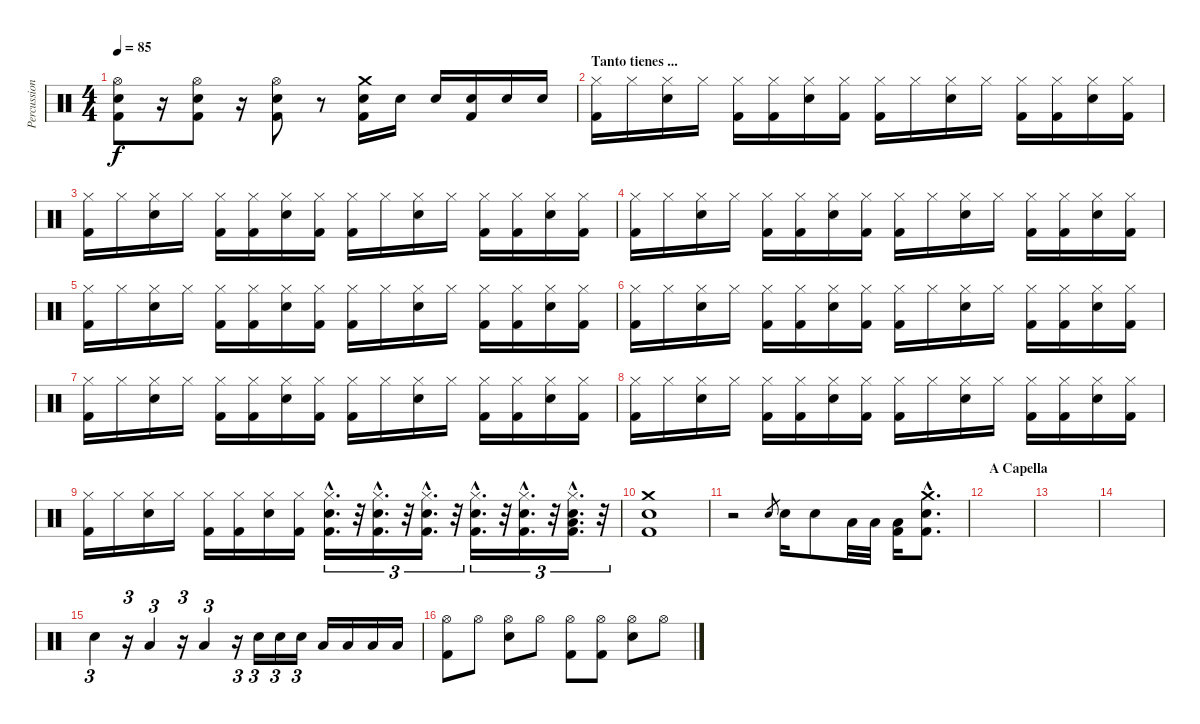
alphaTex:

\track ("Percussions" "Percussion") {instrument percussion}
\staff {score}
\articulation defaults
\ts (4 4)
\tempo 85
\clef neutral
\ks c
("Hi-Hat (open)" "Snare (hit) 2" "Kick (hit) 2").8{dy f} r.16 ("Hi-Hat (open)" "Snare (hit) 2" "Kick (hit) 2").8 r.16 ("Hi-Hat (open)" "Snare (hit) 2" "Kick (hit) 2").8 r.8 ("Crash medium (hit)" "Snare (hit) 2" "Kick (hit) 2").16 "Snare (hit) 2".16 "Snare (hit) 2".16 ("Snare (hit) 2" "Kick (hit) 2").16 "Snare (hit) 2".16 "Snare (hit) 2".16 |
\section ("" "Tanto tienes ...")
("Hi-Hat (closed)" "Kick (hit) 2").16 "Hi-Hat (closed)".16 ("Hi-Hat (closed)" "Snare (hit) 2").16 "Hi-Hat (closed)".16 ("Hi-Hat (closed)" "Kick (hit) 2").16 ("Hi-Hat (closed)" "Kick (hit) 2").16 ("Hi-Hat (closed)" "Snare (hit) 2").16 ("Hi-Hat (closed)" "Kick (hit) 2").16 ("Hi-Hat (closed)" "Kick (hit) 2").16 "Hi-Hat (closed)".16 ("Hi-Hat (closed)" "Snare (hit) 2").16 "Hi-Hat (closed)".16 ("Hi-Hat (closed)" "Kick (hit) 2").16 ("Hi-Hat (closed)" "Kick (hit) 2").16 ("Hi-Hat (closed)" "Snare (hit) 2").16 ("Hi-Hat (closed)" "Kick (hit) 2").16 |
("Hi-Hat (closed)" "Kick (hit) 2").16 "Hi-Hat (closed)".16 ("Hi-Hat (closed)" "Snare (hit) 2").16 "Hi-Hat (closed)".16 ("Hi-Hat (closed)" "Kick (hit) 2").16 ("Hi-Hat (closed)" "Kick (hit) 2").16 ("Hi-Hat (closed)" "Snare (hit) 2").16 ("Hi-Hat (closed)" "Kick (hit) 2").16 ("Hi-Hat (closed)" "Kick (hit) 2").16 "Hi-Hat (closed)".16 ("Hi-Hat (closed)" "Snare (hit) 2").16 "Hi-Hat (closed)".16 ("Hi-Hat (closed)" "Kick (hit) 2").16 ("Hi-Hat (closed)" "Kick (hit) 2").16 ("Hi-Hat (closed)" "Snare (hit) 2").16 ("Hi-Hat (closed)" "Kick (hit) 2").16 |
("Hi-Hat (closed)" "Kick (hit) 2").16 "Hi-Hat (closed)".16 ("Hi-Hat (closed)" "Snare (hit) 2").16 "Hi-Hat (closed)".16 ("Hi-Hat (closed)" "Kick (hit) 2").16 ("Hi-Hat (closed)" "Kick (hit) 2").16 ("Hi-Hat (closed)" "Snare (hit) 2").16 ("Hi-Hat (closed)" "Kick (hit) 2").16 ("Hi-Hat (closed)" "Kick (hit) 2").16 "Hi-Hat (closed)".16 ("Hi-Hat (closed)" "Snare (hit) 2").16 "Hi-Hat (closed)".16 ("Hi-Hat (closed)" "Kick (hit) 2").16 ("Hi-Hat (closed)" "Kick (hit) 2").16 ("Hi-Hat (closed)" "Snare (hit) 2").16 ("Hi-Hat (closed)" "Kick (hit) 2").16 |
("Hi-Hat (closed)" "Kick (hit) 2").16 "Hi-Hat (closed)".16 ("Hi-Hat (closed)" "Snare (hit) 2").16 "Hi-Hat (closed)".16 ("Hi-Hat (closed)" "Kick (hit) 2").16 ("Hi-Hat (closed)" "Kick (hit) 2").16 ("Hi-Hat (closed)" "Snare (hit) 2").16 ("Hi-Hat (closed)" "Kick (hit) 2").16 ("Hi-Hat (closed)" "Kick (hit) 2").16 "Hi-Hat (closed)".16 ("Hi-Hat (closed)" "Snare (hit) 2").16 "Hi-Hat (closed)".16 ("Hi-Hat (closed)" "Kick (hit) 2").16 ("Hi-Hat (closed)" "Kick (hit) 2").16 ("Hi-Hat (closed)" "Snare (hit) 2").16 ("Hi-Hat (closed)" "Kick (hit) 2").16 |
("Hi-Hat (closed)" "Kick (hit) 2").16 "Hi-Hat (closed)".16 ("Hi-Hat (closed)" "Snare (hit) 2").16 "Hi-Hat (closed)".16 ("Hi-Hat (closed)" "Kick (hit) 2").16 ("Hi-Hat (closed)" "Kick (hit) 2").16 ("Hi-Hat (closed)" "Snare (hit) 2").16 ("Hi-Hat (closed)" "Kick (hit) 2").16 ("Hi-Hat (closed)" "Kick (hit) 2").16 "Hi-Hat (closed)".16 ("Hi-Hat (closed)" "Snare (hit) 2").16 "Hi-Hat (closed)".16 ("Hi-Hat (closed)" "Kick (hit) 2").16 ("Hi-Hat (closed)" "Kick (hit) 2").16 ("Hi-Hat (closed)" "Snare (hit) 2").16 ("Hi-Hat (closed)" "Kick (hit) 2").16 |
("Hi-Hat (closed)" "Kick (hit) 2").16 "Hi-Hat (closed)".16 ("Hi-Hat (closed)" "Snare (hit) 2").16 "Hi-Hat (closed)".16 ("Hi-Hat (closed)" "Kick (hit) 2").16 ("Hi-Hat (closed)" "Kick (hit) 2").16 ("Hi-Hat (closed)" "Snare (hit) 2").16 ("Hi-Hat (closed)" "Kick (hit) 2").16 ("Hi-Hat (closed)" "Kick (hit) 2").16 "Hi-Hat (closed)".16 ("Hi-Hat (closed)" "Snare (hit) 2").16 "Hi-Hat (closed)".16 ("Hi-Hat (closed)" "Kick (hit) 2").16 ("Hi-Hat (closed)" "Kick (hit) 2").16 ("Hi-Hat (closed)" "Snare (hit) 2").16 ("Hi-Hat (closed)" "Kick (hit) 2").16 |
("Hi-Hat (closed)" "Kick (hit) 2").16 "Hi-Hat (closed)".16 ("Hi-Hat (closed)" "Snare (hit) 2").16 "Hi-Hat (closed)".16 ("Hi-Hat (closed)" "Kick (hit) 2").16 ("Hi-Hat (closed)" "Kick (hit) 2").16 ("Hi-Hat (closed)" "Snare (hit) 2").16 ("Hi-Hat (closed)" "Kick (hit) 2").16 ("Hi-Hat (closed)" "Kick (hit) 2").16 "Hi-Hat (closed)".16 ("Hi-Hat (closed)" "Snare (hit) 2").16 "Hi-Hat (closed)".16 ("Hi-Hat (closed)" "Kick (hit) 2").16 ("Hi-Hat (closed)" "Kick (hit) 2").16 ("Hi-Hat (closed)" "Snare (hit) 2").16 ("Hi-Hat (closed)" "Kick (hit) 2").16 |
("Hi-Hat (closed)" "Kick (hit) 2").16 "Hi-Hat (closed)".16 ("Hi-Hat (closed)" "Snare (hit) 2").16 "Hi-Hat (closed)".16 ("Hi-Hat (closed)" "Kick (hit) 2").16 ("Hi-Hat (closed)" "Kick (hit) 2").16 ("Hi-Hat (closed)" "Snare (hit) 2").16 ("Hi-Hat (closed)" "Kick (hit) 2").16 ("Hi-Hat (closed)"{hac} "Snare (hit) 2"{hac} "Kick (hit) 2"{hac}).16{d tu (3 2)} r.32{tu (3 2)} ("Hi-Hat (closed)"{hac} "Snare (hit) 2"{hac} "Kick (hit) 2"{hac}).16{d tu (3 2)} r.32{tu (3 2)} ("Hi-Hat (closed)"{hac} "Snare (hit) 2"{hac} "Kick (hit) 2"{hac}).16{d tu (3 2)} r.32{tu (3 2)} ("Hi-Hat (closed)"{hac} "Snare (hit) 2"{hac} "Kick (hit) 2"{hac}).16{d tu (3 2)} r.32{tu (3 2)} ("Hi-Hat (closed)"{hac} "Snare (hit) 2"{hac} "Kick (hit) 2"{hac}).16{d tu (3 2)} r.32{tu (3 2)} ("Hi-Hat (closed)"{hac} "Snare (hit) 2"{hac} "Low Floor Tom (hit)"{hac} "Kick (hit) 2"{hac}).16{d tu (3 2)} r.32{tu (3 2)} |
("Crash medium (hit)" "Snare (hit) 2" "Kick (hit) 2").1 |
r.2 "Snare (hit) 2".8{gr} "Snare (hit) 2".16 "Snare (hit) 2".8 "Low Tom (hit)".32 "Low Floor Tom (hit)".32 ("Low Floor Tom (hit)" "Kick (hit) 2").16 ("Crash medium (hit)"{hac} "Snare (hit) 2"{hac} "Kick (hit) 2"{hac}).8{d} |
\section ("" "A Capella")
|
|
|
"Snare (hit) 2".4{tu (3 2)} r.16{tu (3 2)} "Low Tom (hit)".4{tu (3 2)} r.16{tu (3 2)} "Low Floor Tom (hit)".4{tu (3 2)} r.16{tu (3 2)} "Snare (hit) 2".16{tu (3 2)} "Snare (hit) 2".16{tu (3 2)} "Snare (hit) 2".16{tu (3 2)} "Low Tom (hit)".16 "Low Floor Tom (hit)".16 "Low Floor Tom (hit)".16 "Low Floor Tom (hit)".16 |
("Hi-Hat (open)" "Kick (hit) 2").8 "Hi-Hat (open)".8 ("Hi-Hat (open)" "Snare (hit) 2").8 "Hi-Hat (open)".8 ("Hi-Hat (open)" "Kick (hit) 2").8 ("Hi-Hat (open)" "Kick (hit) 2").8 ("Hi-Hat (open)" "Snare (hit) 2").8 "Hi-Hat (open)".8
